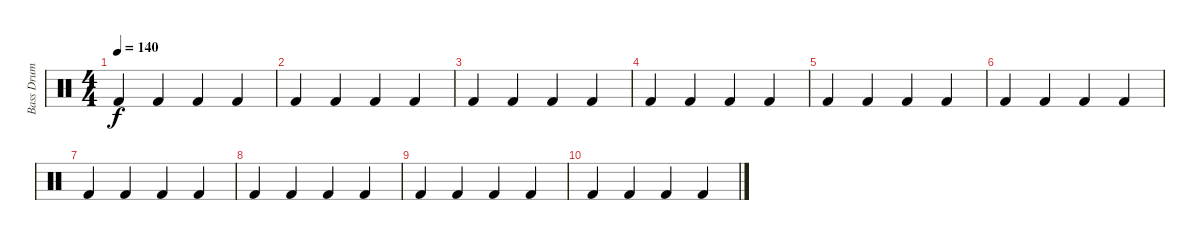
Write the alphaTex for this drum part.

\track ("Bass Drum" "Bass Drum") {instrument percussion}
\staff {score}
\articulation defaults
\ts (4 4)
\tempo 140
\clef neutral
\ks c "Kick (hit) 2".4{dy f} "Kick (hit) 2".4 "Kick (hit) 2".4 "Kick (hit) 2".4
|
"Kick (hit) 2".4 "Kick (hit) 2".4 "Kick (hit) 2".4 "Kick (hit) 2".4 |
"Kick (hit) 2".4 "Kick (hit) 2".4 "Kick (hit) 2".4 "Kick (hit) 2".4 |
"Kick (hit) 2".4 "Kick (hit) 2".4 "Kick (hit) 2".4 "Kick (hit) 2".4 |
"Kick (hit) 2".4 "Kick (hit) 2".4 "Kick (hit) 2".4 "Kick (hit) 2".4 |
"Kick (hit) 2".4 "Kick (hit) 2".4 "Kick (hit) 2".4 "Kick (hit) 2".4 |
"Kick (hit) 2".4 "Kick (hit) 2".4 "Kick (hit) 2".4 "Kick (hit) 2".4 |
"Kick (hit) 2".4 "Kick (hit) 2".4 "Kick (hit) 2".4 "Kick (hit) 2".4 |
"Kick (hit) 2".4 "Kick (hit) 2".4 "Kick (hit) 2".4 "Kick (hit) 2".4 |
"Kick (hit) 2".4 "Kick (hit) 2".4 "Kick (hit) 2".4 "Kick (hit) 2".4
